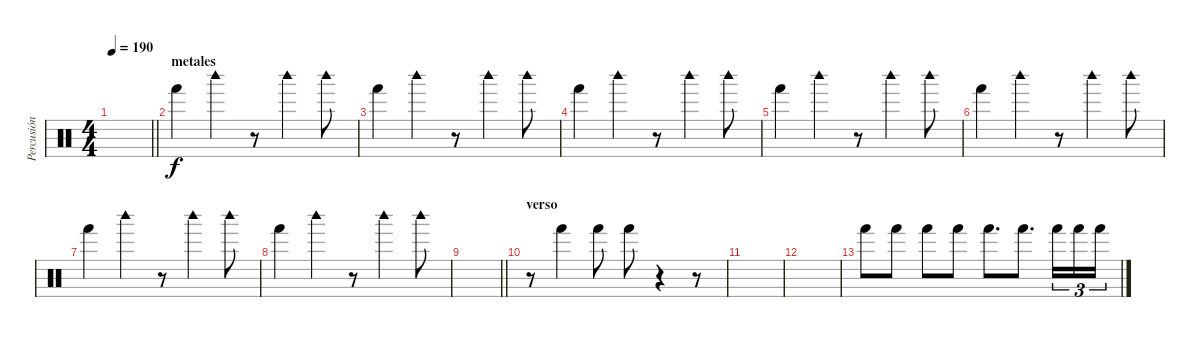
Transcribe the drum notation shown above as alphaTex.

\track ("Percusión" "Percusión") {instrument percussion}
\staff {score}
\articulation defaults
\ts (4 4)
\tempo 190
\clef neutral
\barLineRight lightlight
\ks c
|
\section ("" "metales")
"Hand (hit)".4 "Woodblock high (hit)".4 r.8 "Woodblock high (hit)".4 "Woodblock high (hit)".8 |
"Hand (hit)".4 "Woodblock high (hit)".4 r.8 "Woodblock high (hit)".4 "Woodblock high (hit)".8 |
"Hand (hit)".4 "Woodblock high (hit)".4 r.8 "Woodblock high (hit)".4 "Woodblock high (hit)".8 |
"Hand (hit)".4 "Woodblock high (hit)".4 r.8 "Woodblock high (hit)".4 "Woodblock high (hit)".8 |
"Hand (hit)".4 "Woodblock high (hit)".4 r.8 "Woodblock high (hit)".4 "Woodblock high (hit)".8 |
"Hand (hit)".4 "Woodblock high (hit)".4 r.8 "Woodblock high (hit)".4 "Woodblock high (hit)".8 |
"Hand (hit)".4 "Woodblock high (hit)".4 r.8 "Woodblock high (hit)".4 "Woodblock high (hit)".8 |
\barLineRight lightlight
|
\section ("" "verso")
r.8 "Hand (hit)".4 "Hand (hit)".8 "Hand (hit)".8 r.4 r.8 |
|
|
"Hand (hit)".8 "Hand (hit)".8 "Hand (hit)".8 "Hand (hit)".8 "Hand (hit)".8{d} "Hand (hit)".8{d} "Hand (hit)".16{tu (3 2)} "Hand (hit)".16{tu (3 2)} "Hand (hit)".16{tu (3 2)}
